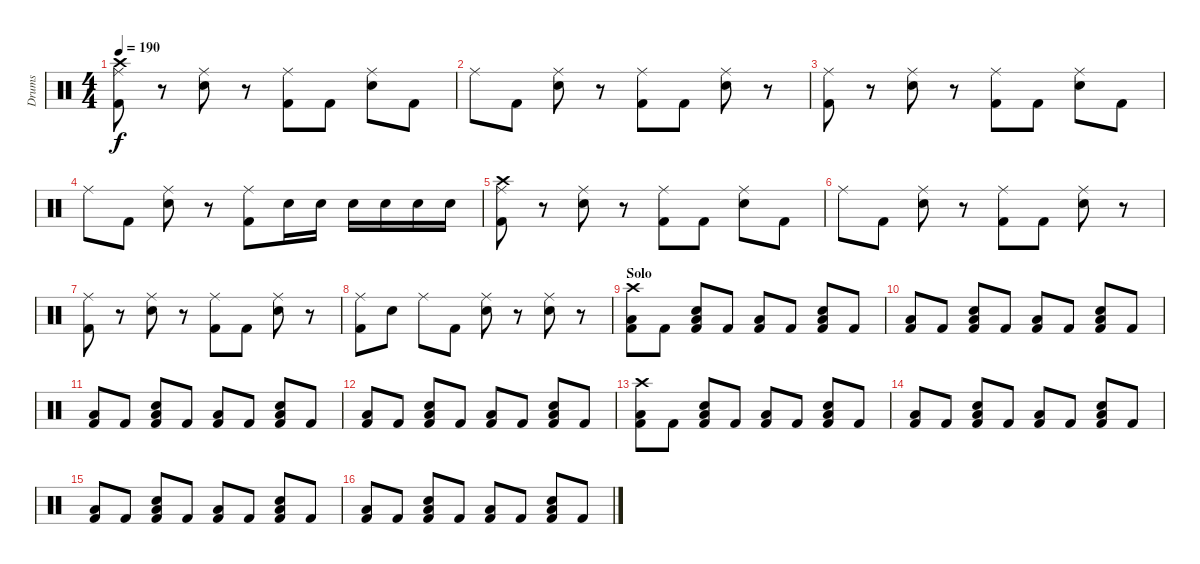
\track ("Drums" "Drums") {instrument percussion}
\staff {score}
\articulation defaults
\ts (4 4)
\tempo 190
\clef neutral
\ks c
("Ride (middle)" "Crash high (hit)" "Kick (hit) 2").8{dy f} r.8 ("Ride (middle)" "Snare (hit) 2").8 r.8 ("Ride (middle)" "Kick (hit) 2").8 "Kick (hit) 2".8 ("Ride (middle)" "Snare (hit) 2").8 "Kick (hit) 2".8 |
"Ride (middle)".8 "Kick (hit) 2".8 ("Ride (middle)" "Snare (hit) 2").8 r.8 ("Ride (middle)" "Kick (hit) 2").8 "Kick (hit) 2".8 ("Ride (middle)" "Snare (hit) 2").8 r.8 |
("Ride (middle)" "Kick (hit) 2").8 r.8 ("Ride (middle)" "Snare (hit) 2").8 r.8 ("Ride (middle)" "Kick (hit) 2").8 "Kick (hit) 2".8 ("Ride (middle)" "Snare (hit) 2").8 "Kick (hit) 2".8 |
"Ride (middle)".8 "Kick (hit) 2".8 ("Ride (middle)" "Snare (hit) 2").8 r.8 ("Ride (middle)" "Kick (hit) 2").8 "Snare (hit) 2".16 "Snare (hit) 2".16 "Snare (hit) 2".16 "Snare (hit) 2".16 "Snare (hit) 2".16 "Snare (hit) 2".16 |
("Ride (middle)" "Crash high (hit)" "Kick (hit) 2").8 r.8 ("Ride (middle)" "Snare (hit) 2").8 r.8 ("Ride (middle)" "Kick (hit) 2").8 "Kick (hit) 2".8 ("Ride (middle)" "Snare (hit) 2").8 "Kick (hit) 2".8 |
"Ride (middle)".8 "Kick (hit) 2".8 ("Ride (middle)" "Snare (hit) 2").8 r.8 ("Ride (middle)" "Kick (hit) 2").8 "Kick (hit) 2".8 ("Ride (middle)" "Snare (hit) 2").8 r.8 |
("Ride (middle)" "Kick (hit) 2").8 r.8 ("Ride (middle)" "Snare (hit) 2").8 r.8 ("Ride (middle)" "Kick (hit) 2").8 "Kick (hit) 2".8 ("Ride (middle)" "Snare (hit) 2").8 r.8 |
("Ride (middle)" "Kick (hit) 2").8 "Snare (hit) 2".8 "Ride (middle)".8 "Kick (hit) 2".8 ("Ride (middle)" "Snare (hit) 2").8 r.8 ("Ride (middle)" "Snare (hit) 2").8 r.8 |
\section ("" "Solo")
("Crash high (hit)" "Low Floor Tom (hit)" "Kick (hit) 2").8 "Kick (hit) 2".8 ("Low Floor Tom (hit)" "Snare (hit) 2" "Kick (hit) 2").8 "Kick (hit) 2".8 ("Low Floor Tom (hit)" "Kick (hit) 2").8 "Kick (hit) 2".8 ("Low Floor Tom (hit)" "Snare (hit) 2" "Kick (hit) 2").8 "Kick (hit) 2".8 |
("Low Floor Tom (hit)" "Kick (hit) 2").8 "Kick (hit) 2".8 ("Low Floor Tom (hit)" "Snare (hit) 2" "Kick (hit) 2").8 "Kick (hit) 2".8 ("Low Floor Tom (hit)" "Kick (hit) 2").8 "Kick (hit) 2".8 ("Low Floor Tom (hit)" "Snare (hit) 2" "Kick (hit) 2").8 "Kick (hit) 2".8 |
("Low Floor Tom (hit)" "Kick (hit) 2").8 "Kick (hit) 2".8 ("Low Floor Tom (hit)" "Snare (hit) 2" "Kick (hit) 2").8 "Kick (hit) 2".8 ("Low Floor Tom (hit)" "Kick (hit) 2").8 "Kick (hit) 2".8 ("Low Floor Tom (hit)" "Snare (hit) 2" "Kick (hit) 2").8 "Kick (hit) 2".8 |
("Low Floor Tom (hit)" "Kick (hit) 2").8 "Kick (hit) 2".8 ("Low Floor Tom (hit)" "Snare (hit) 2" "Kick (hit) 2").8 "Kick (hit) 2".8 ("Low Floor Tom (hit)" "Kick (hit) 2").8 "Kick (hit) 2".8 ("Low Floor Tom (hit)" "Snare (hit) 2" "Kick (hit) 2").8 "Kick (hit) 2".8 |
("Crash high (hit)" "Low Floor Tom (hit)" "Kick (hit) 2").8 "Kick (hit) 2".8 ("Low Floor Tom (hit)" "Snare (hit) 2" "Kick (hit) 2").8 "Kick (hit) 2".8 ("Low Floor Tom (hit)" "Kick (hit) 2").8 "Kick (hit) 2".8 ("Low Floor Tom (hit)" "Snare (hit) 2" "Kick (hit) 2").8 "Kick (hit) 2".8 |
("Low Floor Tom (hit)" "Kick (hit) 2").8 "Kick (hit) 2".8 ("Low Floor Tom (hit)" "Snare (hit) 2" "Kick (hit) 2").8 "Kick (hit) 2".8 ("Low Floor Tom (hit)" "Kick (hit) 2").8 "Kick (hit) 2".8 ("Low Floor Tom (hit)" "Snare (hit) 2" "Kick (hit) 2").8 "Kick (hit) 2".8 |
("Low Floor Tom (hit)" "Kick (hit) 2").8 "Kick (hit) 2".8 ("Low Floor Tom (hit)" "Snare (hit) 2" "Kick (hit) 2").8 "Kick (hit) 2".8 ("Low Floor Tom (hit)" "Kick (hit) 2").8 "Kick (hit) 2".8 ("Low Floor Tom (hit)" "Snare (hit) 2" "Kick (hit) 2").8 "Kick (hit) 2".8 |
("Low Floor Tom (hit)" "Kick (hit) 2").8 "Kick (hit) 2".8 ("Low Floor Tom (hit)" "Snare (hit) 2" "Kick (hit) 2").8 "Kick (hit) 2".8 ("Low Floor Tom (hit)" "Kick (hit) 2").8 "Kick (hit) 2".8 ("Low Floor Tom (hit)" "Snare (hit) 2" "Kick (hit) 2").8 "Kick (hit) 2".8
